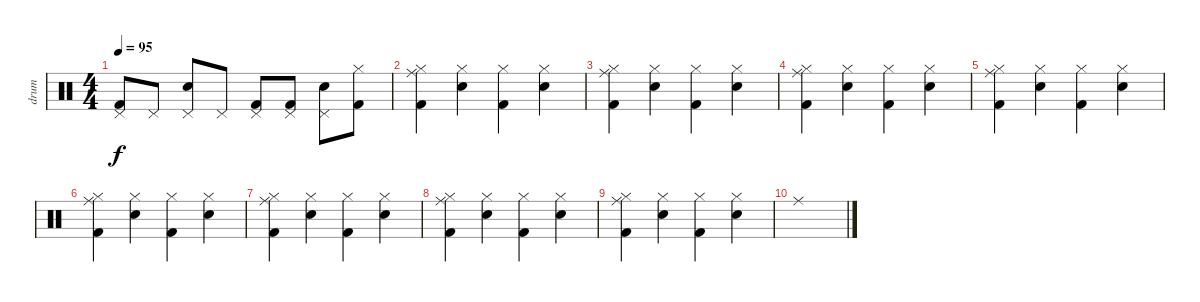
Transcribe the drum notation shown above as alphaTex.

\track ("drum" "drum") {instrument percussion}
\staff {score}
\articulation defaults
\ts (4 4)
\tempo 95
\clef neutral
\ks c
("Pedal Hi-Hat (hit)" "Kick (hit) 2").8{dy f} "Pedal Hi-Hat (hit)".8 ("Pedal Hi-Hat (hit)" "Hand Clap (hit)").8 "Pedal Hi-Hat (hit)".8 ("Pedal Hi-Hat (hit)" "Kick (hit) 2").8 ("Pedal Hi-Hat (hit)" "Kick (hit) 2").8 ("Pedal Hi-Hat (hit)" "Hand Clap (hit)").8 ("Hi-Hat (closed)" "Kick (hit) 2").8 |
("Kick (hit) 2" "Hi-Hat (closed)" "Ride (middle)").4 ("Hand Clap (hit)" "Hi-Hat (closed)").4 ("Kick (hit) 2" "Hi-Hat (closed)").4 ("Hand Clap (hit)" "Hi-Hat (closed)").4 |
("Kick (hit) 2" "Hi-Hat (closed)" "Ride (middle)").4 ("Hand Clap (hit)" "Hi-Hat (closed)").4 ("Kick (hit) 2" "Hi-Hat (closed)").4 ("Hand Clap (hit)" "Hi-Hat (closed)").4 |
("Kick (hit) 2" "Hi-Hat (closed)" "Ride (middle)").4 ("Hand Clap (hit)" "Hi-Hat (closed)").4 ("Kick (hit) 2" "Hi-Hat (closed)").4 ("Hand Clap (hit)" "Hi-Hat (closed)").4 |
("Kick (hit) 2" "Hi-Hat (closed)" "Ride (middle)").4 ("Hand Clap (hit)" "Hi-Hat (closed)").4 ("Kick (hit) 2" "Hi-Hat (closed)").4 ("Hand Clap (hit)" "Hi-Hat (closed)").4 |
("Kick (hit) 2" "Hi-Hat (closed)" "Ride (middle)").4 ("Hand Clap (hit)" "Hi-Hat (closed)").4 ("Kick (hit) 2" "Hi-Hat (closed)").4 ("Hand Clap (hit)" "Hi-Hat (closed)").4 |
("Kick (hit) 2" "Hi-Hat (closed)" "Ride (middle)").4 ("Hand Clap (hit)" "Hi-Hat (closed)").4 ("Kick (hit) 2" "Hi-Hat (closed)").4 ("Hand Clap (hit)" "Hi-Hat (closed)").4 |
("Kick (hit) 2" "Hi-Hat (closed)" "Ride (middle)").4 ("Hand Clap (hit)" "Hi-Hat (closed)").4 ("Kick (hit) 2" "Hi-Hat (closed)").4 ("Hand Clap (hit)" "Hi-Hat (closed)").4 |
("Kick (hit) 2" "Hi-Hat (closed)" "Ride (middle)").4 ("Hand Clap (hit)" "Hi-Hat (closed)").4 ("Kick (hit) 2" "Hi-Hat (closed)").4 ("Hand Clap (hit)" "Hi-Hat (closed)").4 |
"Ride (middle)".1
